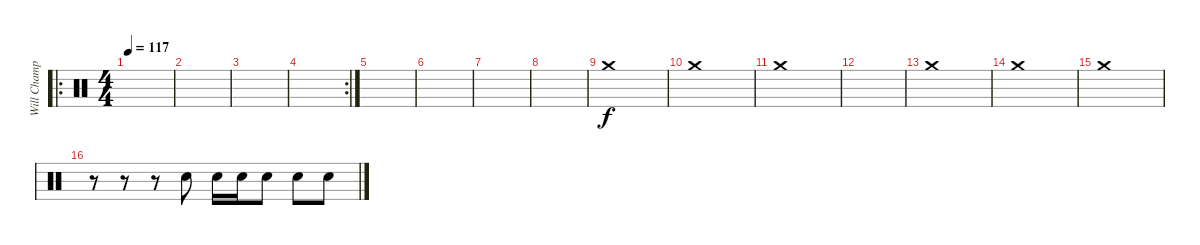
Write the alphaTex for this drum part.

\track ("Will Champion - Drums" "Will Champ") {instrument percussion}
\staff {score}
\articulation defaults
\ro
\ts (4 4)
\tempo 117
\clef neutral
\ks c
|
|
|
\rc 2
|
|
|
|
|
"Crash medium (hit)".1 |
"Crash medium (hit)".1 |
"Crash medium (hit)".1 |
|
"Crash medium (hit)".1 |
"Crash medium (hit)".1 |
"Crash medium (hit)".1 |
r.8 r.8 r.8 "Snare (hit) 2".8 "Snare (hit) 2".16 "Snare (hit) 2".16 "Snare (hit) 2".8 "Snare (hit) 2".8 "Snare (hit) 2".8
